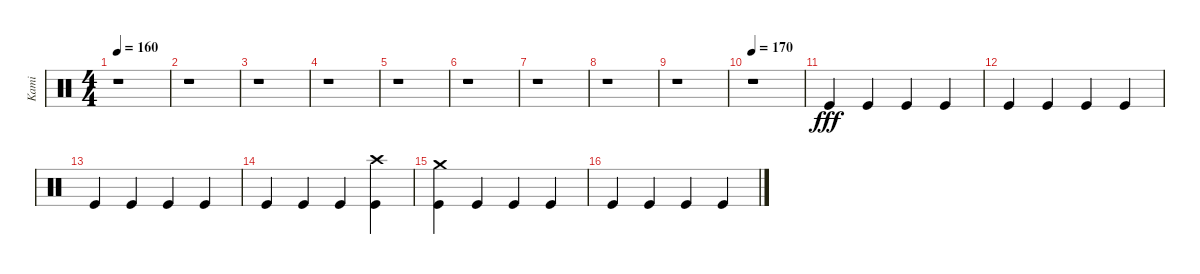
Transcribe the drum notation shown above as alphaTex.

\track ("Kami" "Kami") {instrument percussion}
\staff {score}
\articulation defaults
\ts (4 4)
\tempo 160
\clef neutral
\ks c
r.1{dy fff} |
r.1 |
r.1 |
r.1 |
r.1 |
r.1 |
r.1 |
r.1 |
r.1 |
\tempo 170
r.1 |
"Kick (hit)".4 "Kick (hit)".4 "Kick (hit)".4 "Kick (hit)".4 |
"Kick (hit)".4 "Kick (hit)".4 "Kick (hit)".4 "Kick (hit)".4 |
"Kick (hit)".4 "Kick (hit)".4 "Kick (hit)".4 "Kick (hit)".4 |
"Kick (hit)".4 "Kick (hit)".4 "Kick (hit)".4 ("Kick (hit)" "Crash high (hit)").4 |
("Kick (hit)" "Crash medium (hit)").4 "Kick (hit)".4 "Kick (hit)".4 "Kick (hit)".4 |
"Kick (hit)".4 "Kick (hit)".4 "Kick (hit)".4 "Kick (hit)".4
